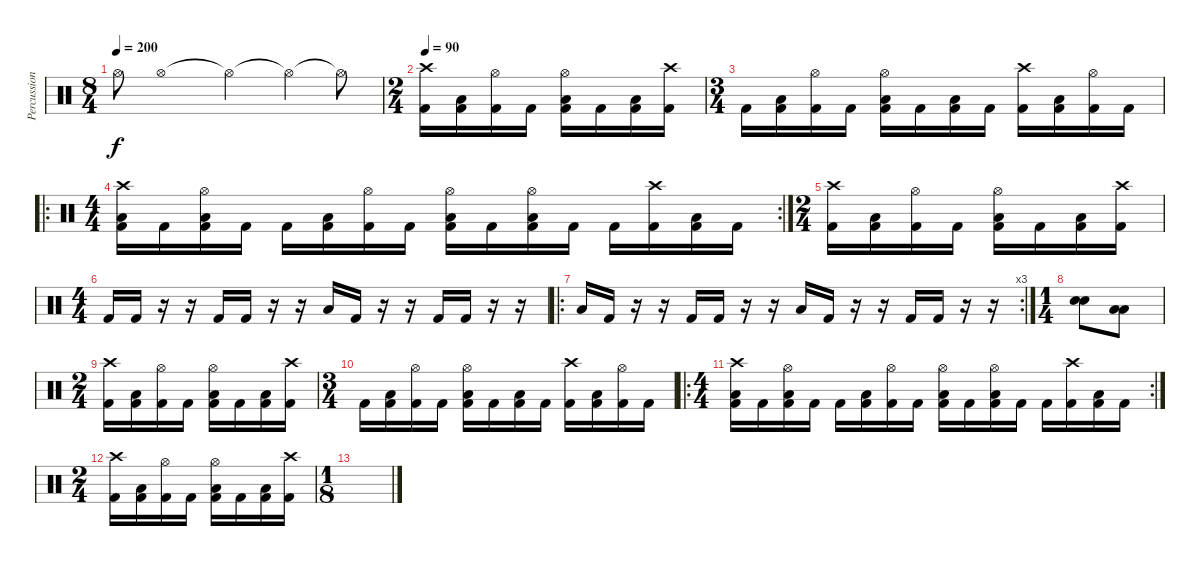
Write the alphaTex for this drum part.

\track ("Percussioni" "Percussion") {instrument percussion}
\staff {score}
\articulation defaults
\ts (8 4)
\tempo 200
\clef neutral
\ks c "Hi-Hat (open)".8{dy f} "Hi-Hat (open)".1 "Hi-Hat (open)"{t}.2 "Hi-Hat (open)"{t}.4 "Hi-Hat (open)"{t}.8
|
\ts (2 4)
\tempo 90
("Crash high (hit)" "Kick (hit) 2").16 ("Low Floor Tom (hit)" "Kick (hit) 2").16 ("Hi-Hat (open)" "Kick (hit) 2").16 "Kick (hit) 2".16 ("Hi-Hat (open)" "Low Floor Tom (hit)" "Kick (hit) 2").16 "Kick (hit) 2".16 ("Low Floor Tom (hit)" "Kick (hit) 2").16 ("Crash high (hit)" "Kick (hit) 2").16 |
\ts (3 4)
"Kick (hit) 2".16 ("Low Floor Tom (hit)" "Kick (hit) 2").16 ("Hi-Hat (open)" "Kick (hit) 2").16 "Kick (hit) 2".16 ("Hi-Hat (open)" "Low Floor Tom (hit)" "Kick (hit) 2").16 "Kick (hit) 2".16 ("Low Floor Tom (hit)" "Kick (hit) 2").16 "Kick (hit) 2".16 ("Crash high (hit)" "Kick (hit) 2").16 ("Low Floor Tom (hit)" "Kick (hit) 2").16 ("Hi-Hat (open)" "Kick (hit) 2").16 "Kick (hit) 2".16 |
\ro
\rc 2
\ts (4 4)
("Crash high (hit)" "Low Floor Tom (hit)" "Kick (hit) 2").16 "Kick (hit) 2".16 ("Hi-Hat (open)" "Low Floor Tom (hit)" "Kick (hit) 2").16 "Kick (hit) 2".16 "Kick (hit) 2".16 ("Low Floor Tom (hit)" "Kick (hit) 2").16 ("Hi-Hat (open)" "Kick (hit) 2").16 "Kick (hit) 2".16 ("Hi-Hat (open)" "Low Floor Tom (hit)" "Kick (hit) 2").16 "Kick (hit) 2".16 ("Hi-Hat (open)" "Low Floor Tom (hit)" "Kick (hit) 2").16 "Kick (hit) 2".16 "Kick (hit) 2".16 ("Crash high (hit)" "Kick (hit) 2").16 ("Low Floor Tom (hit)" "Kick (hit) 2").16 "Kick (hit) 2".16 |
\ts (2 4)
("Crash high (hit)" "Kick (hit) 2").16 ("Low Floor Tom (hit)" "Kick (hit) 2").16 ("Hi-Hat (open)" "Kick (hit) 2").16 "Kick (hit) 2".16 ("Hi-Hat (open)" "Low Floor Tom (hit)" "Kick (hit) 2").16 "Kick (hit) 2".16 ("Low Floor Tom (hit)" "Kick (hit) 2").16 ("Crash high (hit)" "Kick (hit) 2").16 |
\ts (4 4)
"Kick (hit) 2".16 "Kick (hit) 2".16 r.16 r.16 "Kick (hit) 2".16 "Kick (hit) 2".16 r.16 r.16 "Low Floor Tom (hit)".16 "Kick (hit) 2".16 r.16 r.16 "Kick (hit) 2".16 "Kick (hit) 2".16 r.16 r.16 |
\ro
\rc 3 "Low Floor Tom (hit)".16 "Kick (hit) 2".16
r.16 r.16 "Kick (hit) 2".16 "Kick (hit) 2".16 r.16 r.16 "Low Floor Tom (hit)".16 "Kick (hit) 2".16 r.16 r.16 "Kick (hit) 2".16 "Kick (hit) 2".16 r.16 r.16 |
\ts (1 4)
("Snare (hit) 2" "Snare (hit) 2").8 ("Low Floor Tom (hit)" "Low Floor Tom (hit)").8 |
\ts (2 4)
("Crash high (hit)" "Kick (hit) 2").16 ("Low Floor Tom (hit)" "Kick (hit) 2").16 ("Hi-Hat (open)" "Kick (hit) 2").16 "Kick (hit) 2".16 ("Hi-Hat (open)" "Low Floor Tom (hit)" "Kick (hit) 2").16 "Kick (hit) 2".16 ("Low Floor Tom (hit)" "Kick (hit) 2").16 ("Crash high (hit)" "Kick (hit) 2").16 |
\ts (3 4)
"Kick (hit) 2".16 ("Low Floor Tom (hit)" "Kick (hit) 2").16 ("Hi-Hat (open)" "Kick (hit) 2").16 "Kick (hit) 2".16 ("Hi-Hat (open)" "Low Floor Tom (hit)" "Kick (hit) 2").16 "Kick (hit) 2".16 ("Low Floor Tom (hit)" "Kick (hit) 2").16 "Kick (hit) 2".16 ("Crash high (hit)" "Kick (hit) 2").16 ("Low Floor Tom (hit)" "Kick (hit) 2").16 ("Hi-Hat (open)" "Kick (hit) 2").16 "Kick (hit) 2".16 |
\ro
\rc 2
\ts (4 4)
("Crash high (hit)" "Low Floor Tom (hit)" "Kick (hit) 2").16 "Kick (hit) 2".16 ("Hi-Hat (open)" "Low Floor Tom (hit)" "Kick (hit) 2").16 "Kick (hit) 2".16 "Kick (hit) 2".16 ("Low Floor Tom (hit)" "Kick (hit) 2").16 ("Hi-Hat (open)" "Kick (hit) 2").16 "Kick (hit) 2".16 ("Hi-Hat (open)" "Low Floor Tom (hit)" "Kick (hit) 2").16 "Kick (hit) 2".16 ("Hi-Hat (open)" "Low Floor Tom (hit)" "Kick (hit) 2").16 "Kick (hit) 2".16 "Kick (hit) 2".16 ("Crash high (hit)" "Kick (hit) 2").16 ("Low Floor Tom (hit)" "Kick (hit) 2").16 "Kick (hit) 2".16 |
\ts (2 4)
("Crash high (hit)" "Kick (hit) 2").16 ("Low Floor Tom (hit)" "Kick (hit) 2").16 ("Hi-Hat (open)" "Kick (hit) 2").16 "Kick (hit) 2".16 ("Hi-Hat (open)" "Low Floor Tom (hit)" "Kick (hit) 2").16 "Kick (hit) 2".16 ("Low Floor Tom (hit)" "Kick (hit) 2").16 ("Crash high (hit)" "Kick (hit) 2").16 |
\ts (1 8)
